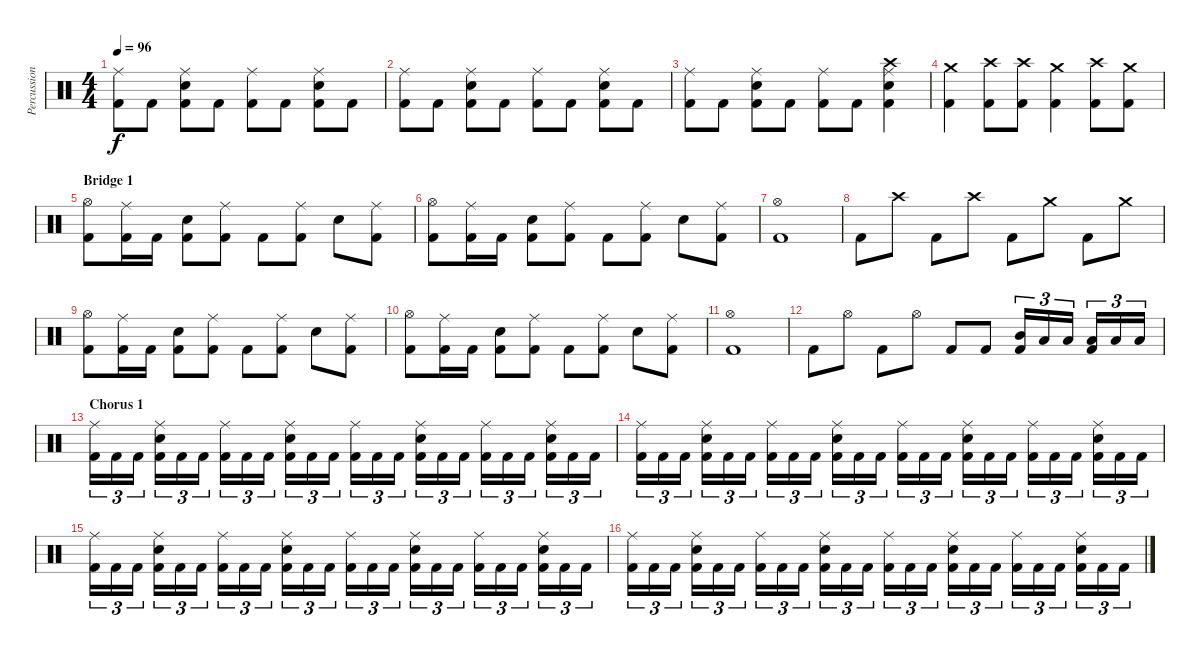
\track ("Percussion" "Percussion") {instrument percussion}
\staff {score}
\articulation defaults
\ts (4 4)
\tempo 96
\clef neutral
\ks c
("Ride (middle)" "Kick (hit) 2").8{dy f} "Kick (hit) 2".8 ("Snare (hit) 2" "Ride (middle)" "Kick (hit) 2").8 "Kick (hit) 2".8 ("Ride (middle)" "Kick (hit) 2").8 "Kick (hit) 2".8 ("Snare (hit) 2" "Ride (middle)" "Kick (hit) 2").8 "Kick (hit) 2".8 |
("Ride (middle)" "Kick (hit) 2").8 "Kick (hit) 2".8 ("Snare (hit) 2" "Ride (middle)" "Kick (hit) 2").8 "Kick (hit) 2".8 ("Ride (middle)" "Kick (hit) 2").8 "Kick (hit) 2".8 ("Snare (hit) 2" "Ride (middle)" "Kick (hit) 2").8 "Kick (hit) 2".8 |
("Ride (middle)" "Kick (hit) 2").8 "Kick (hit) 2".8 ("Snare (hit) 2" "Ride (middle)" "Kick (hit) 2").8 "Kick (hit) 2".8 ("Ride (middle)" "Kick (hit) 2").8 "Kick (hit) 2".8 ("Crash high (hit)" "Snare (hit) 2" "Ride (middle)" "Kick (hit) 2").4 |
("Crash medium (hit)" "Kick (hit) 2").4 ("Crash high (hit)" "Kick (hit) 2").8 ("Crash high (hit)" "Kick (hit) 2").8 ("Crash medium (hit)" "Kick (hit) 2").4 ("Crash high (hit)" "Kick (hit) 2").8 ("Crash medium (hit)" "Kick (hit) 2").8 |
\section ("" "Bridge 1")
("Hi-Hat (open)" "Kick (hit) 2").8 ("Ride (middle)" "Kick (hit) 2").16 "Kick (hit) 2".16 ("Snare (hit) 2" "Kick (hit) 2").8 ("Ride (middle)" "Kick (hit) 2").8 "Kick (hit) 2".8 ("Ride (middle)" "Kick (hit) 2").8 "Snare (hit) 2".8 ("Ride (middle)" "Kick (hit) 2").8 |
("Hi-Hat (open)" "Kick (hit) 2").8 ("Ride (middle)" "Kick (hit) 2").16 "Kick (hit) 2".16 ("Snare (hit) 2" "Kick (hit) 2").8 ("Ride (middle)" "Kick (hit) 2").8 "Kick (hit) 2".8 ("Ride (middle)" "Kick (hit) 2").8 "Snare (hit) 2".8 ("Ride (middle)" "Kick (hit) 2").8 |
("Hi-Hat (open)" "Kick (hit) 2").1 |
"Kick (hit) 2".8 "Crash high (hit)".8 "Kick (hit) 2".8 "Crash high (hit)".8 "Kick (hit) 2".8 "Crash medium (hit)".8 "Kick (hit) 2".8 "Crash medium (hit)".8 |
("Hi-Hat (open)" "Kick (hit) 2").8 ("Ride (middle)" "Kick (hit) 2").16 "Kick (hit) 2".16 ("Snare (hit) 2" "Kick (hit) 2").8 ("Ride (middle)" "Kick (hit) 2").8 "Kick (hit) 2".8 ("Ride (middle)" "Kick (hit) 2").8 "Snare (hit) 2".8 ("Ride (middle)" "Kick (hit) 2").8 |
("Hi-Hat (open)" "Kick (hit) 2").8 ("Ride (middle)" "Kick (hit) 2").16 "Kick (hit) 2".16 ("Snare (hit) 2" "Kick (hit) 2").8 ("Ride (middle)" "Kick (hit) 2").8 "Kick (hit) 2".8 ("Ride (middle)" "Kick (hit) 2").8 "Snare (hit) 2".8 ("Ride (middle)" "Kick (hit) 2").8 |
("Hi-Hat (open)" "Kick (hit) 2").1 |
"Kick (hit) 2".8 "Hi-Hat (open)".8 "Kick (hit) 2".8 "Hi-Hat (open)".8 "Kick (hit) 2".8 "Kick (hit) 2".8 ("Mid Tom (hit)" "Kick (hit) 2").16{tu (3 2)} "Low Tom (hit)".16{tu (3 2)} "Low Floor Tom (hit)".16{tu (3 2)} ("Low Floor Tom (hit)" "Kick (hit) 2").16{tu (3 2)} "Low Tom (hit)".16{tu (3 2)} "Low Floor Tom (hit)".16{tu (3 2)} |
\section ("" "Chorus 1")
("Ride (middle)" "Kick (hit) 2").16{tu (3 2)} "Kick (hit) 2".16{tu (3 2)} "Kick (hit) 2".16{tu (3 2)} ("Ride (middle)" "Snare (hit) 2" "Kick (hit) 2").16{tu (3 2)} "Kick (hit) 2".16{tu (3 2)} "Kick (hit) 2".16{tu (3 2)} ("Ride (middle)" "Kick (hit) 2").16{tu (3 2)} "Kick (hit) 2".16{tu (3 2)} "Kick (hit) 2".16{tu (3 2)} ("Ride (middle)" "Snare (hit) 2" "Kick (hit) 2").16{tu (3 2)} "Kick (hit) 2".16{tu (3 2)} "Kick (hit) 2".16{tu (3 2)} ("Ride (middle)" "Kick (hit) 2").16{tu (3 2)} "Kick (hit) 2".16{tu (3 2)} "Kick (hit) 2".16{tu (3 2)} ("Ride (middle)" "Snare (hit) 2" "Kick (hit) 2").16{tu (3 2)} "Kick (hit) 2".16{tu (3 2)} "Kick (hit) 2".16{tu (3 2)} ("Ride (middle)" "Kick (hit) 2").16{tu (3 2)} "Kick (hit) 2".16{tu (3 2)} "Kick (hit) 2".16{tu (3 2)} ("Ride (middle)" "Snare (hit) 2" "Kick (hit) 2").16{tu (3 2)} "Kick (hit) 2".16{tu (3 2)} "Kick (hit) 2".16{tu (3 2)} |
("Ride (middle)" "Kick (hit) 2").16{tu (3 2)} "Kick (hit) 2".16{tu (3 2)} "Kick (hit) 2".16{tu (3 2)} ("Ride (middle)" "Snare (hit) 2" "Kick (hit) 2").16{tu (3 2)} "Kick (hit) 2".16{tu (3 2)} "Kick (hit) 2".16{tu (3 2)} ("Ride (middle)" "Kick (hit) 2").16{tu (3 2)} "Kick (hit) 2".16{tu (3 2)} "Kick (hit) 2".16{tu (3 2)} ("Ride (middle)" "Snare (hit) 2" "Kick (hit) 2").16{tu (3 2)} "Kick (hit) 2".16{tu (3 2)} "Kick (hit) 2".16{tu (3 2)} ("Ride (middle)" "Kick (hit) 2").16{tu (3 2)} "Kick (hit) 2".16{tu (3 2)} "Kick (hit) 2".16{tu (3 2)} ("Ride (middle)" "Snare (hit) 2" "Kick (hit) 2").16{tu (3 2)} "Kick (hit) 2".16{tu (3 2)} "Kick (hit) 2".16{tu (3 2)} ("Ride (middle)" "Kick (hit) 2").16{tu (3 2)} "Kick (hit) 2".16{tu (3 2)} "Kick (hit) 2".16{tu (3 2)} ("Ride (middle)" "Snare (hit) 2" "Kick (hit) 2").16{tu (3 2)} "Kick (hit) 2".16{tu (3 2)} "Kick (hit) 2".16{tu (3 2)} |
("Ride (middle)" "Kick (hit) 2").16{tu (3 2)} "Kick (hit) 2".16{tu (3 2)} "Kick (hit) 2".16{tu (3 2)} ("Ride (middle)" "Snare (hit) 2" "Kick (hit) 2").16{tu (3 2)} "Kick (hit) 2".16{tu (3 2)} "Kick (hit) 2".16{tu (3 2)} ("Ride (middle)" "Kick (hit) 2").16{tu (3 2)} "Kick (hit) 2".16{tu (3 2)} "Kick (hit) 2".16{tu (3 2)} ("Ride (middle)" "Snare (hit) 2" "Kick (hit) 2").16{tu (3 2)} "Kick (hit) 2".16{tu (3 2)} "Kick (hit) 2".16{tu (3 2)} ("Ride (middle)" "Kick (hit) 2").16{tu (3 2)} "Kick (hit) 2".16{tu (3 2)} "Kick (hit) 2".16{tu (3 2)} ("Ride (middle)" "Snare (hit) 2" "Kick (hit) 2").16{tu (3 2)} "Kick (hit) 2".16{tu (3 2)} "Kick (hit) 2".16{tu (3 2)} ("Ride (middle)" "Kick (hit) 2").16{tu (3 2)} "Kick (hit) 2".16{tu (3 2)} "Kick (hit) 2".16{tu (3 2)} ("Ride (middle)" "Snare (hit) 2" "Kick (hit) 2").16{tu (3 2)} "Kick (hit) 2".16{tu (3 2)} "Kick (hit) 2".16{tu (3 2)} |
("Ride (middle)" "Kick (hit) 2").16{tu (3 2)} "Kick (hit) 2".16{tu (3 2)} "Kick (hit) 2".16{tu (3 2)} ("Ride (middle)" "Snare (hit) 2" "Kick (hit) 2").16{tu (3 2)} "Kick (hit) 2".16{tu (3 2)} "Kick (hit) 2".16{tu (3 2)} ("Ride (middle)" "Kick (hit) 2").16{tu (3 2)} "Kick (hit) 2".16{tu (3 2)} "Kick (hit) 2".16{tu (3 2)} ("Ride (middle)" "Snare (hit) 2" "Kick (hit) 2").16{tu (3 2)} "Kick (hit) 2".16{tu (3 2)} "Kick (hit) 2".16{tu (3 2)} ("Ride (middle)" "Kick (hit) 2").16{tu (3 2)} "Kick (hit) 2".16{tu (3 2)} "Kick (hit) 2".16{tu (3 2)} ("Ride (middle)" "Snare (hit) 2" "Kick (hit) 2").16{tu (3 2)} "Kick (hit) 2".16{tu (3 2)} "Kick (hit) 2".16{tu (3 2)} ("Ride (middle)" "Kick (hit) 2").16{tu (3 2)} "Kick (hit) 2".16{tu (3 2)} "Kick (hit) 2".16{tu (3 2)} ("Ride (middle)" "Snare (hit) 2" "Kick (hit) 2").16{tu (3 2)} "Kick (hit) 2".16{tu (3 2)} "Kick (hit) 2".16{tu (3 2)}
